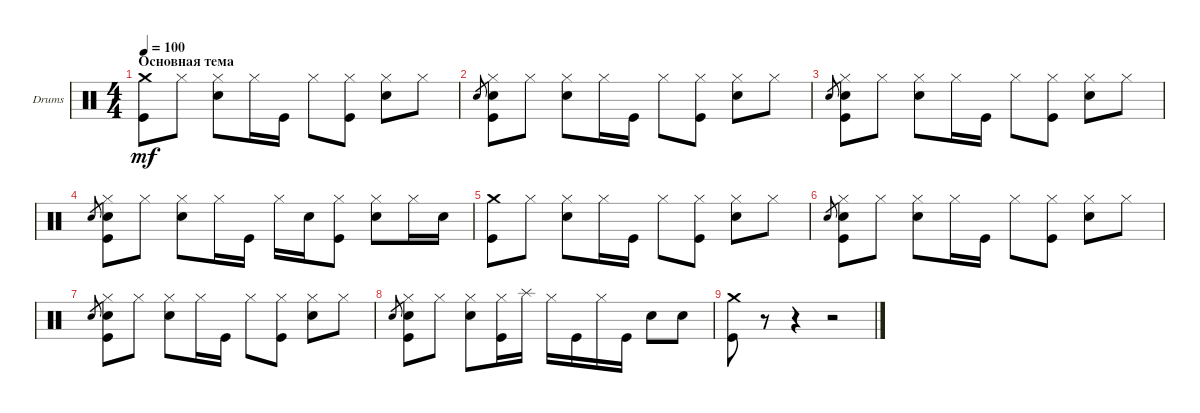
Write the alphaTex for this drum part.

\defaultSystemsLayout 4
\bracketExtendMode groupsimilarinstruments
\firstSystemTrackNameOrientation horizontal
\otherSystemsTrackNameOrientation horizontal
\track ("Drumkit" "Drums") {instrument percussion}
\staff {score}
\articulation defaults
\ts (4 4)
\section ("" "Основная тема")
\tempo 100
\clef neutral
\ks c
("Kick (hit)" "Crash medium (hit)").8{dy mf} "Hi-Hat (closed)".8 ("Snare (hit) 2" "Hi-Hat (closed)").8 "Hi-Hat (closed)".16 "Kick (hit)".16 "Hi-Hat (closed)".8 ("Kick (hit)" "Hi-Hat (closed)").8 ("Snare (hit) 2" "Hi-Hat (closed)").8 "Hi-Hat (closed)".8 |
"Snare (hit) 2".8{gr} ("Snare (hit) 2" "Hi-Hat (closed)" "Kick (hit)").8 "Hi-Hat (closed)".8 ("Hi-Hat (closed)" "Snare (hit) 2").8 "Hi-Hat (closed)".16 "Kick (hit)".16 "Hi-Hat (closed)".8 ("Hi-Hat (closed)" "Kick (hit)").8 ("Snare (hit) 2" "Hi-Hat (closed)").8 "Hi-Hat (closed)".8 |
"Snare (hit) 2".8{gr} ("Snare (hit) 2" "Hi-Hat (closed)" "Kick (hit)").8 "Hi-Hat (closed)".8 ("Hi-Hat (closed)" "Snare (hit) 2").8 "Hi-Hat (closed)".16 "Kick (hit)".16 "Hi-Hat (closed)".8 ("Hi-Hat (closed)" "Kick (hit)").8 ("Snare (hit) 2" "Hi-Hat (closed)").8 "Hi-Hat (closed)".8 |
"Snare (hit) 2".8{gr} ("Snare (hit) 2" "Hi-Hat (closed)" "Kick (hit)").8 "Hi-Hat (closed)".8 ("Snare (hit) 2" "Hi-Hat (closed)").8 "Hi-Hat (closed)".16 "Kick (hit)".16 "Hi-Hat (closed)".16 "Snare (hit) 2".16 ("Hi-Hat (closed)" "Kick (hit)").8 ("Hi-Hat (closed)" "Snare (hit) 2").8 "Hi-Hat (closed)".16 "Snare (hit) 2".16 |
("Kick (hit)" "Crash medium (hit)").8 "Hi-Hat (closed)".8 ("Snare (hit) 2" "Hi-Hat (closed)").8 "Hi-Hat (closed)".16 "Kick (hit)".16 "Hi-Hat (closed)".8 ("Kick (hit)" "Hi-Hat (closed)").8 ("Snare (hit) 2" "Hi-Hat (closed)").8 "Hi-Hat (closed)".8 |
"Snare (hit) 2".8{gr} ("Snare (hit) 2" "Hi-Hat (closed)" "Kick (hit)").8 "Hi-Hat (closed)".8 ("Hi-Hat (closed)" "Snare (hit) 2").8 "Hi-Hat (closed)".16 "Kick (hit)".16 "Hi-Hat (closed)".8 ("Hi-Hat (closed)" "Kick (hit)").8 ("Snare (hit) 2" "Hi-Hat (closed)").8 "Hi-Hat (closed)".8 |
"Snare (hit) 2".8{gr} ("Snare (hit) 2" "Hi-Hat (closed)" "Kick (hit)").8 "Hi-Hat (closed)".8 ("Hi-Hat (closed)" "Snare (hit) 2").8 "Hi-Hat (closed)".16 "Kick (hit)".16 "Hi-Hat (closed)".8 ("Hi-Hat (closed)" "Kick (hit)").8 ("Snare (hit) 2" "Hi-Hat (closed)").8 "Hi-Hat (closed)".8 |
"Snare (hit) 2".8{gr} ("Snare (hit) 2" "Hi-Hat (closed)" "Kick (hit)").8 "Hi-Hat (closed)".8 ("Hi-Hat (closed)" "Snare (hit) 2").8 ("Hi-Hat (closed)" "Kick (hit)").16 "Splash (hit)".16 "Hi-Hat (closed)".16 "Kick (hit)".16 "Hi-Hat (closed)".16 "Kick (hit)".16 "Snare (hit) 2".8 "Snare (hit) 2".8 |
("Kick (hit)" "Crash medium (hit)").8 r.8 r.4 r.2
